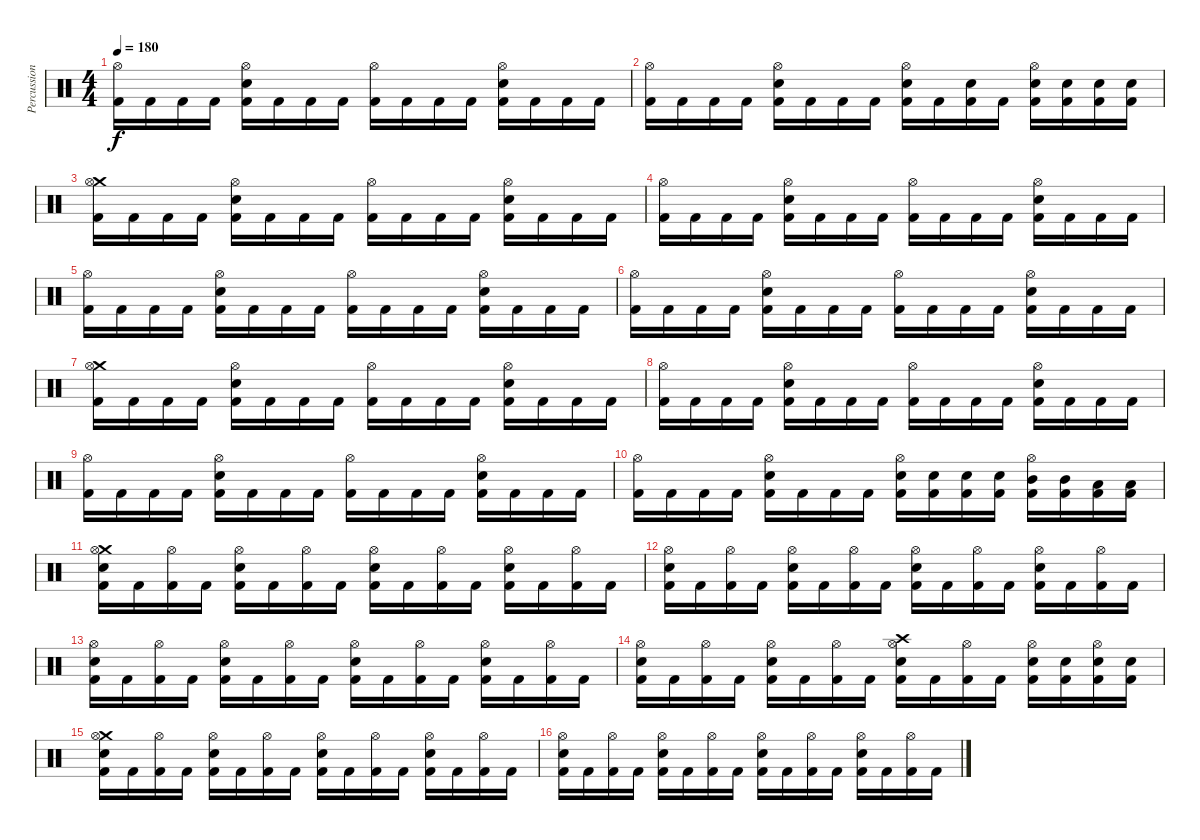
\track ("Percussion" "Percussion") {instrument percussion}
\staff {score}
\articulation defaults
\ts (4 4)
\tempo 180
\clef neutral
\ks c
("Hi-Hat (open)" "Kick (hit) 2").16{dy f} "Kick (hit) 2".16 "Kick (hit) 2".16 "Kick (hit) 2".16 ("Hi-Hat (open)" "Electric Snare (hit)" "Kick (hit) 2").16 "Kick (hit) 2".16 "Kick (hit) 2".16 "Kick (hit) 2".16 ("Hi-Hat (open)" "Kick (hit) 2").16 "Kick (hit) 2".16 "Kick (hit) 2".16 "Kick (hit) 2".16 ("Hi-Hat (open)" "Electric Snare (hit)" "Kick (hit) 2").16 "Kick (hit) 2".16 "Kick (hit) 2".16 "Kick (hit) 2".16 |
("Hi-Hat (open)" "Kick (hit) 2").16 "Kick (hit) 2".16 "Kick (hit) 2".16 "Kick (hit) 2".16 ("Hi-Hat (open)" "Electric Snare (hit)" "Kick (hit) 2").16 "Kick (hit) 2".16 "Kick (hit) 2".16 "Kick (hit) 2".16 ("Hi-Hat (open)" "Electric Snare (hit)" "Kick (hit) 2").16 "Kick (hit) 2".16 ("Electric Snare (hit)" "Kick (hit) 2").16 "Kick (hit) 2".16 ("Hi-Hat (open)" "Electric Snare (hit)" "Kick (hit) 2").16 ("Electric Snare (hit)" "Kick (hit) 2").16 ("Electric Snare (hit)" "Kick (hit) 2").16 ("Electric Snare (hit)" "Kick (hit) 2").16 |
("Crash medium (hit)" "Hi-Hat (open)" "Kick (hit) 2").16 "Kick (hit) 2".16 "Kick (hit) 2".16 "Kick (hit) 2".16 ("Hi-Hat (open)" "Electric Snare (hit)" "Kick (hit) 2").16 "Kick (hit) 2".16 "Kick (hit) 2".16 "Kick (hit) 2".16 ("Hi-Hat (open)" "Kick (hit) 2").16 "Kick (hit) 2".16 "Kick (hit) 2".16 "Kick (hit) 2".16 ("Hi-Hat (open)" "Electric Snare (hit)" "Kick (hit) 2").16 "Kick (hit) 2".16 "Kick (hit) 2".16 "Kick (hit) 2".16 |
("Hi-Hat (open)" "Kick (hit) 2").16 "Kick (hit) 2".16 "Kick (hit) 2".16 "Kick (hit) 2".16 ("Hi-Hat (open)" "Electric Snare (hit)" "Kick (hit) 2").16 "Kick (hit) 2".16 "Kick (hit) 2".16 "Kick (hit) 2".16 ("Hi-Hat (open)" "Kick (hit) 2").16 "Kick (hit) 2".16 "Kick (hit) 2".16 "Kick (hit) 2".16 ("Hi-Hat (open)" "Electric Snare (hit)" "Kick (hit) 2").16 "Kick (hit) 2".16 "Kick (hit) 2".16 "Kick (hit) 2".16 |
("Hi-Hat (open)" "Kick (hit) 2").16 "Kick (hit) 2".16 "Kick (hit) 2".16 "Kick (hit) 2".16 ("Hi-Hat (open)" "Electric Snare (hit)" "Kick (hit) 2").16 "Kick (hit) 2".16 "Kick (hit) 2".16 "Kick (hit) 2".16 ("Hi-Hat (open)" "Kick (hit) 2").16 "Kick (hit) 2".16 "Kick (hit) 2".16 "Kick (hit) 2".16 ("Hi-Hat (open)" "Electric Snare (hit)" "Kick (hit) 2").16 "Kick (hit) 2".16 "Kick (hit) 2".16 "Kick (hit) 2".16 |
("Hi-Hat (open)" "Kick (hit) 2").16 "Kick (hit) 2".16 "Kick (hit) 2".16 "Kick (hit) 2".16 ("Hi-Hat (open)" "Electric Snare (hit)" "Kick (hit) 2").16 "Kick (hit) 2".16 "Kick (hit) 2".16 "Kick (hit) 2".16 ("Hi-Hat (open)" "Kick (hit) 2").16 "Kick (hit) 2".16 "Kick (hit) 2".16 "Kick (hit) 2".16 ("Hi-Hat (open)" "Electric Snare (hit)" "Kick (hit) 2").16 "Kick (hit) 2".16 "Kick (hit) 2".16 "Kick (hit) 2".16 |
("Crash medium (hit)" "Hi-Hat (open)" "Kick (hit) 2").16 "Kick (hit) 2".16 "Kick (hit) 2".16 "Kick (hit) 2".16 ("Hi-Hat (open)" "Electric Snare (hit)" "Kick (hit) 2").16 "Kick (hit) 2".16 "Kick (hit) 2".16 "Kick (hit) 2".16 ("Hi-Hat (open)" "Kick (hit) 2").16 "Kick (hit) 2".16 "Kick (hit) 2".16 "Kick (hit) 2".16 ("Hi-Hat (open)" "Electric Snare (hit)" "Kick (hit) 2").16 "Kick (hit) 2".16 "Kick (hit) 2".16 "Kick (hit) 2".16 |
("Hi-Hat (open)" "Kick (hit) 2").16 "Kick (hit) 2".16 "Kick (hit) 2".16 "Kick (hit) 2".16 ("Hi-Hat (open)" "Electric Snare (hit)" "Kick (hit) 2").16 "Kick (hit) 2".16 "Kick (hit) 2".16 "Kick (hit) 2".16 ("Hi-Hat (open)" "Kick (hit) 2").16 "Kick (hit) 2".16 "Kick (hit) 2".16 "Kick (hit) 2".16 ("Hi-Hat (open)" "Electric Snare (hit)" "Kick (hit) 2").16 "Kick (hit) 2".16 "Kick (hit) 2".16 "Kick (hit) 2".16 |
("Hi-Hat (open)" "Kick (hit) 2").16 "Kick (hit) 2".16 "Kick (hit) 2".16 "Kick (hit) 2".16 ("Hi-Hat (open)" "Electric Snare (hit)" "Kick (hit) 2").16 "Kick (hit) 2".16 "Kick (hit) 2".16 "Kick (hit) 2".16 ("Hi-Hat (open)" "Kick (hit) 2").16 "Kick (hit) 2".16 "Kick (hit) 2".16 "Kick (hit) 2".16 ("Hi-Hat (open)" "Electric Snare (hit)" "Kick (hit) 2").16 "Kick (hit) 2".16 "Kick (hit) 2".16 "Kick (hit) 2".16 |
("Hi-Hat (open)" "Kick (hit) 2").16 "Kick (hit) 2".16 "Kick (hit) 2".16 "Kick (hit) 2".16 ("Hi-Hat (open)" "Electric Snare (hit)" "Kick (hit) 2").16 "Kick (hit) 2".16 "Kick (hit) 2".16 "Kick (hit) 2".16 ("Hi-Hat (open)" "Electric Snare (hit)" "Kick (hit) 2").16 ("Electric Snare (hit)" "Kick (hit) 2").16 ("Electric Snare (hit)" "Kick (hit) 2").16 ("Electric Snare (hit)" "Kick (hit) 2").16 ("Hi-Hat (open)" "Mid Tom (hit)" "Kick (hit) 2").16 ("Mid Tom (hit)" "Kick (hit) 2").16 ("Low Tom (hit)" "Kick (hit) 2").16 ("Low Tom (hit)" "Kick (hit) 2").16 |
("Crash medium (hit)" "Hi-Hat (open)" "Electric Snare (hit)" "Kick (hit) 2").16 "Kick (hit) 2".16 ("Hi-Hat (open)" "Kick (hit) 2").16 "Kick (hit) 2".16 ("Hi-Hat (open)" "Electric Snare (hit)" "Kick (hit) 2").16 "Kick (hit) 2".16 ("Hi-Hat (open)" "Kick (hit) 2").16 "Kick (hit) 2".16 ("Hi-Hat (open)" "Electric Snare (hit)" "Kick (hit) 2").16 "Kick (hit) 2".16 ("Hi-Hat (open)" "Kick (hit) 2").16 "Kick (hit) 2".16 ("Hi-Hat (open)" "Electric Snare (hit)" "Kick (hit) 2").16 "Kick (hit) 2".16 ("Hi-Hat (open)" "Kick (hit) 2").16 "Kick (hit) 2".16 |
("Hi-Hat (open)" "Electric Snare (hit)" "Kick (hit) 2").16 "Kick (hit) 2".16 ("Hi-Hat (open)" "Kick (hit) 2").16 "Kick (hit) 2".16 ("Hi-Hat (open)" "Electric Snare (hit)" "Kick (hit) 2").16 "Kick (hit) 2".16 ("Hi-Hat (open)" "Kick (hit) 2").16 "Kick (hit) 2".16 ("Hi-Hat (open)" "Electric Snare (hit)" "Kick (hit) 2").16 "Kick (hit) 2".16 ("Hi-Hat (open)" "Kick (hit) 2").16 "Kick (hit) 2".16 ("Hi-Hat (open)" "Electric Snare (hit)" "Kick (hit) 2").16 "Kick (hit) 2".16 ("Hi-Hat (open)" "Kick (hit) 2").16 "Kick (hit) 2".16 |
("Hi-Hat (open)" "Electric Snare (hit)" "Kick (hit) 2").16 "Kick (hit) 2".16 ("Hi-Hat (open)" "Kick (hit) 2").16 "Kick (hit) 2".16 ("Hi-Hat (open)" "Electric Snare (hit)" "Kick (hit) 2").16 "Kick (hit) 2".16 ("Hi-Hat (open)" "Kick (hit) 2").16 "Kick (hit) 2".16 ("Hi-Hat (open)" "Electric Snare (hit)" "Kick (hit) 2").16 "Kick (hit) 2".16 ("Hi-Hat (open)" "Kick (hit) 2").16 "Kick (hit) 2".16 ("Hi-Hat (open)" "Electric Snare (hit)" "Kick (hit) 2").16 "Kick (hit) 2".16 ("Hi-Hat (open)" "Kick (hit) 2").16 "Kick (hit) 2".16 |
("Hi-Hat (open)" "Electric Snare (hit)" "Kick (hit) 2").16 "Kick (hit) 2".16 ("Hi-Hat (open)" "Kick (hit) 2").16 "Kick (hit) 2".16 ("Hi-Hat (open)" "Electric Snare (hit)" "Kick (hit) 2").16 "Kick (hit) 2".16 ("Hi-Hat (open)" "Kick (hit) 2").16 "Kick (hit) 2".16 ("Crash high (hit)" "Hi-Hat (open)" "Electric Snare (hit)" "Kick (hit) 2").16 "Kick (hit) 2".16 ("Hi-Hat (open)" "Kick (hit) 2").16 "Kick (hit) 2".16 ("Hi-Hat (open)" "Electric Snare (hit)" "Kick (hit) 2").16 ("Electric Snare (hit)" "Kick (hit) 2").16 ("Hi-Hat (open)" "Electric Snare (hit)" "Kick (hit) 2").16 ("Electric Snare (hit)" "Kick (hit) 2").16 |
("Crash medium (hit)" "Hi-Hat (open)" "Electric Snare (hit)" "Kick (hit) 2").16 "Kick (hit) 2".16 ("Hi-Hat (open)" "Kick (hit) 2").16 "Kick (hit) 2".16 ("Hi-Hat (open)" "Electric Snare (hit)" "Kick (hit) 2").16 "Kick (hit) 2".16 ("Hi-Hat (open)" "Kick (hit) 2").16 "Kick (hit) 2".16 ("Hi-Hat (open)" "Electric Snare (hit)" "Kick (hit) 2").16 "Kick (hit) 2".16 ("Hi-Hat (open)" "Kick (hit) 2").16 "Kick (hit) 2".16 ("Hi-Hat (open)" "Electric Snare (hit)" "Kick (hit) 2").16 "Kick (hit) 2".16 ("Hi-Hat (open)" "Kick (hit) 2").16 "Kick (hit) 2".16 |
("Hi-Hat (open)" "Electric Snare (hit)" "Kick (hit) 2").16 "Kick (hit) 2".16 ("Hi-Hat (open)" "Kick (hit) 2").16 "Kick (hit) 2".16 ("Hi-Hat (open)" "Electric Snare (hit)" "Kick (hit) 2").16 "Kick (hit) 2".16 ("Hi-Hat (open)" "Kick (hit) 2").16 "Kick (hit) 2".16 ("Hi-Hat (open)" "Electric Snare (hit)" "Kick (hit) 2").16 "Kick (hit) 2".16 ("Hi-Hat (open)" "Kick (hit) 2").16 "Kick (hit) 2".16 ("Hi-Hat (open)" "Electric Snare (hit)" "Kick (hit) 2").16 "Kick (hit) 2".16 ("Hi-Hat (open)" "Kick (hit) 2").16 "Kick (hit) 2".16
